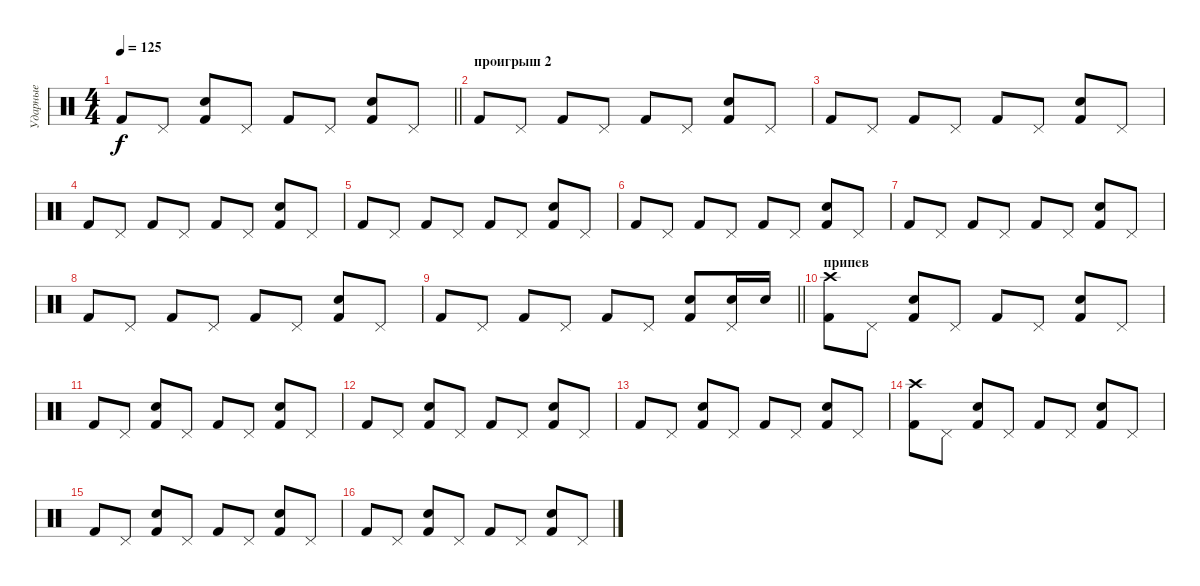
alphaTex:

\track ("Ударные" "Ударные") {instrument percussion}
\staff {score}
\articulation defaults
\ts (4 4)
\tempo 125
\clef neutral
\barLineRight lightlight
\ks c "Kick (hit) 2".8{dy f} "Pedal Hi-Hat (hit)".8
("Kick (hit) 2" "Snare (hit) 2").8 "Pedal Hi-Hat (hit)".8 "Kick (hit) 2".8 "Pedal Hi-Hat (hit)".8 ("Kick (hit) 2" "Snare (hit) 2").8 "Pedal Hi-Hat (hit)".8 |
\section ("" "проигрыш 2")
"Kick (hit) 2".8 "Pedal Hi-Hat (hit)".8 "Kick (hit) 2".8 "Pedal Hi-Hat (hit)".8 "Kick (hit) 2".8 "Pedal Hi-Hat (hit)".8 ("Kick (hit) 2" "Snare (hit) 2").8 "Pedal Hi-Hat (hit)".8 |
"Kick (hit) 2".8 "Pedal Hi-Hat (hit)".8 "Kick (hit) 2".8 "Pedal Hi-Hat (hit)".8 "Kick (hit) 2".8 "Pedal Hi-Hat (hit)".8 ("Kick (hit) 2" "Snare (hit) 2").8 "Pedal Hi-Hat (hit)".8 |
"Kick (hit) 2".8 "Pedal Hi-Hat (hit)".8 "Kick (hit) 2".8 "Pedal Hi-Hat (hit)".8 "Kick (hit) 2".8 "Pedal Hi-Hat (hit)".8 ("Kick (hit) 2" "Snare (hit) 2").8 "Pedal Hi-Hat (hit)".8 |
"Kick (hit) 2".8 "Pedal Hi-Hat (hit)".8 "Kick (hit) 2".8 "Pedal Hi-Hat (hit)".8 "Kick (hit) 2".8 "Pedal Hi-Hat (hit)".8 ("Kick (hit) 2" "Snare (hit) 2").8 "Pedal Hi-Hat (hit)".8 |
"Kick (hit) 2".8 "Pedal Hi-Hat (hit)".8 "Kick (hit) 2".8 "Pedal Hi-Hat (hit)".8 "Kick (hit) 2".8 "Pedal Hi-Hat (hit)".8 ("Kick (hit) 2" "Snare (hit) 2").8 "Pedal Hi-Hat (hit)".8 |
"Kick (hit) 2".8 "Pedal Hi-Hat (hit)".8 "Kick (hit) 2".8 "Pedal Hi-Hat (hit)".8 "Kick (hit) 2".8 "Pedal Hi-Hat (hit)".8 ("Kick (hit) 2" "Snare (hit) 2").8 "Pedal Hi-Hat (hit)".8 |
"Kick (hit) 2".8 "Pedal Hi-Hat (hit)".8 "Kick (hit) 2".8 "Pedal Hi-Hat (hit)".8 "Kick (hit) 2".8 "Pedal Hi-Hat (hit)".8 ("Kick (hit) 2" "Snare (hit) 2").8 "Pedal Hi-Hat (hit)".8 |
\barLineRight lightlight "Kick (hit) 2".8 "Pedal Hi-Hat (hit)".8 "Kick (hit) 2".8 "Pedal Hi-Hat (hit)".8 "Kick (hit) 2".8 "Pedal Hi-Hat (hit)".8
("Kick (hit) 2" "Snare (hit) 2").8 ("Pedal Hi-Hat (hit)" "Snare (hit) 2").16 "Snare (hit) 2".16 |
\section ("" "припев")
("Kick (hit) 2" "Crash high (hit)").8 "Pedal Hi-Hat (hit)".8 ("Kick (hit) 2" "Snare (hit) 2").8 "Pedal Hi-Hat (hit)".8 "Kick (hit) 2".8 "Pedal Hi-Hat (hit)".8 ("Kick (hit) 2" "Snare (hit) 2").8 "Pedal Hi-Hat (hit)".8 |
"Kick (hit) 2".8 "Pedal Hi-Hat (hit)".8 ("Kick (hit) 2" "Snare (hit) 2").8 "Pedal Hi-Hat (hit)".8 "Kick (hit) 2".8 "Pedal Hi-Hat (hit)".8 ("Kick (hit) 2" "Snare (hit) 2").8 "Pedal Hi-Hat (hit)".8 |
"Kick (hit) 2".8 "Pedal Hi-Hat (hit)".8 ("Kick (hit) 2" "Snare (hit) 2").8 "Pedal Hi-Hat (hit)".8 "Kick (hit) 2".8 "Pedal Hi-Hat (hit)".8 ("Kick (hit) 2" "Snare (hit) 2").8 "Pedal Hi-Hat (hit)".8 |
"Kick (hit) 2".8 "Pedal Hi-Hat (hit)".8 ("Kick (hit) 2" "Snare (hit) 2").8 "Pedal Hi-Hat (hit)".8 "Kick (hit) 2".8 "Pedal Hi-Hat (hit)".8 ("Kick (hit) 2" "Snare (hit) 2").8 "Pedal Hi-Hat (hit)".8 |
("Kick (hit) 2" "Crash high (hit)").8 "Pedal Hi-Hat (hit)".8 ("Kick (hit) 2" "Snare (hit) 2").8 "Pedal Hi-Hat (hit)".8 "Kick (hit) 2".8 "Pedal Hi-Hat (hit)".8 ("Kick (hit) 2" "Snare (hit) 2").8 "Pedal Hi-Hat (hit)".8 |
"Kick (hit) 2".8 "Pedal Hi-Hat (hit)".8 ("Kick (hit) 2" "Snare (hit) 2").8 "Pedal Hi-Hat (hit)".8 "Kick (hit) 2".8 "Pedal Hi-Hat (hit)".8 ("Kick (hit) 2" "Snare (hit) 2").8 "Pedal Hi-Hat (hit)".8 |
"Kick (hit) 2".8 "Pedal Hi-Hat (hit)".8 ("Kick (hit) 2" "Snare (hit) 2").8 "Pedal Hi-Hat (hit)".8 "Kick (hit) 2".8 "Pedal Hi-Hat (hit)".8 ("Kick (hit) 2" "Snare (hit) 2").8 "Pedal Hi-Hat (hit)".8
